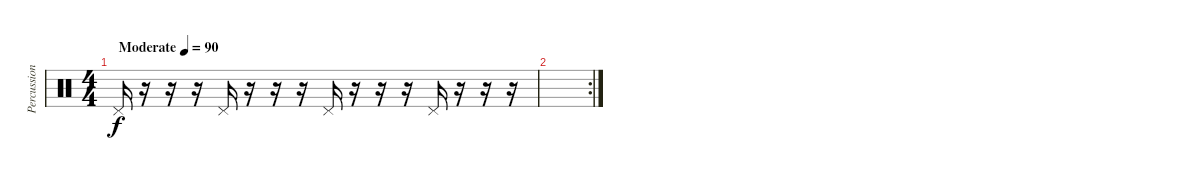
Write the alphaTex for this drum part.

\track ("Percussion" "Percussion") {instrument percussion}
\staff {score}
\articulation defaults
\ts (4 4)
\tempo (90 "Moderate")
\clef neutral
\ks c "Pedal Hi-Hat (hit)".16{dy f}
r.16 r.16 r.16 "Pedal Hi-Hat (hit)".16 r.16 r.16 r.16 "Pedal Hi-Hat (hit)".16 r.16 r.16 r.16 "Pedal Hi-Hat (hit)".16 r.16 r.16 r.16 |
\rc 2
